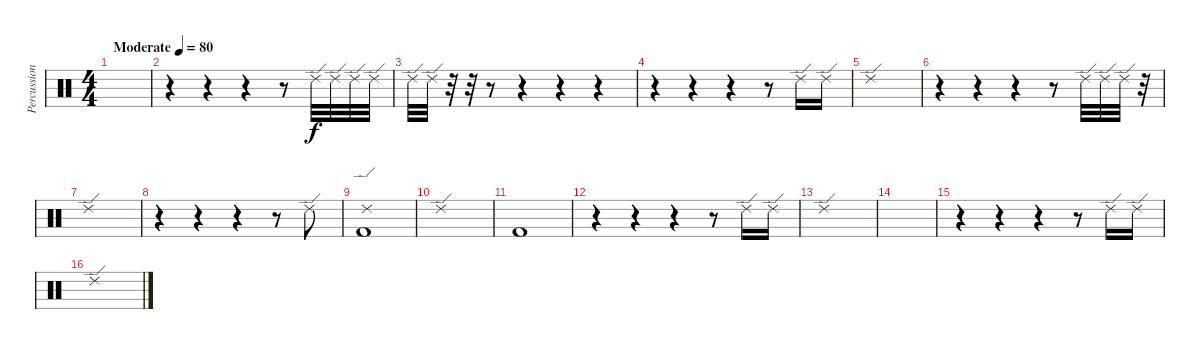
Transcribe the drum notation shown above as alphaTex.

\track ("Percussion" "Percussion") {instrument percussion}
\staff {score}
\articulation defaults
\ts (4 4)
\tempo (80 "Moderate")
\clef neutral
\ks c
|
r.4 r.4 r.4 r.8 "Ride (edge) 2".32 "Ride (edge) 2".32 "Ride (edge) 2".32 "Ride (edge) 2".32 |
"Ride (edge) 2".32 "Ride (edge) 2".32 r.32 r.32 r.8 r.4 r.4 r.4 |
r.4 r.4 r.4 r.8 "Ride (edge) 2".16 "Ride (edge) 2".16 |
"Ride (edge) 2".1 |
r.4 r.4 r.4 r.8 "Ride (edge) 2".32 "Ride (edge) 2".32 "Ride (edge) 2".32 r.32 |
"Ride (edge) 2".1 |
r.4 r.4 r.4 r.8 "Ride (edge) 2".8 |
("Ride (edge) 2" "Kick (hit) 2").1 |
"Ride (edge) 2".1 |
"Kick (hit) 2".1 |
r.4 r.4 r.4 r.8 "Ride (edge) 2".16 "Ride (edge) 2".16 |
"Ride (edge) 2".1 |
|
r.4 r.4 r.4 r.8 "Ride (edge) 2".16 "Ride (edge) 2".16 |
"Ride (edge) 2".1
